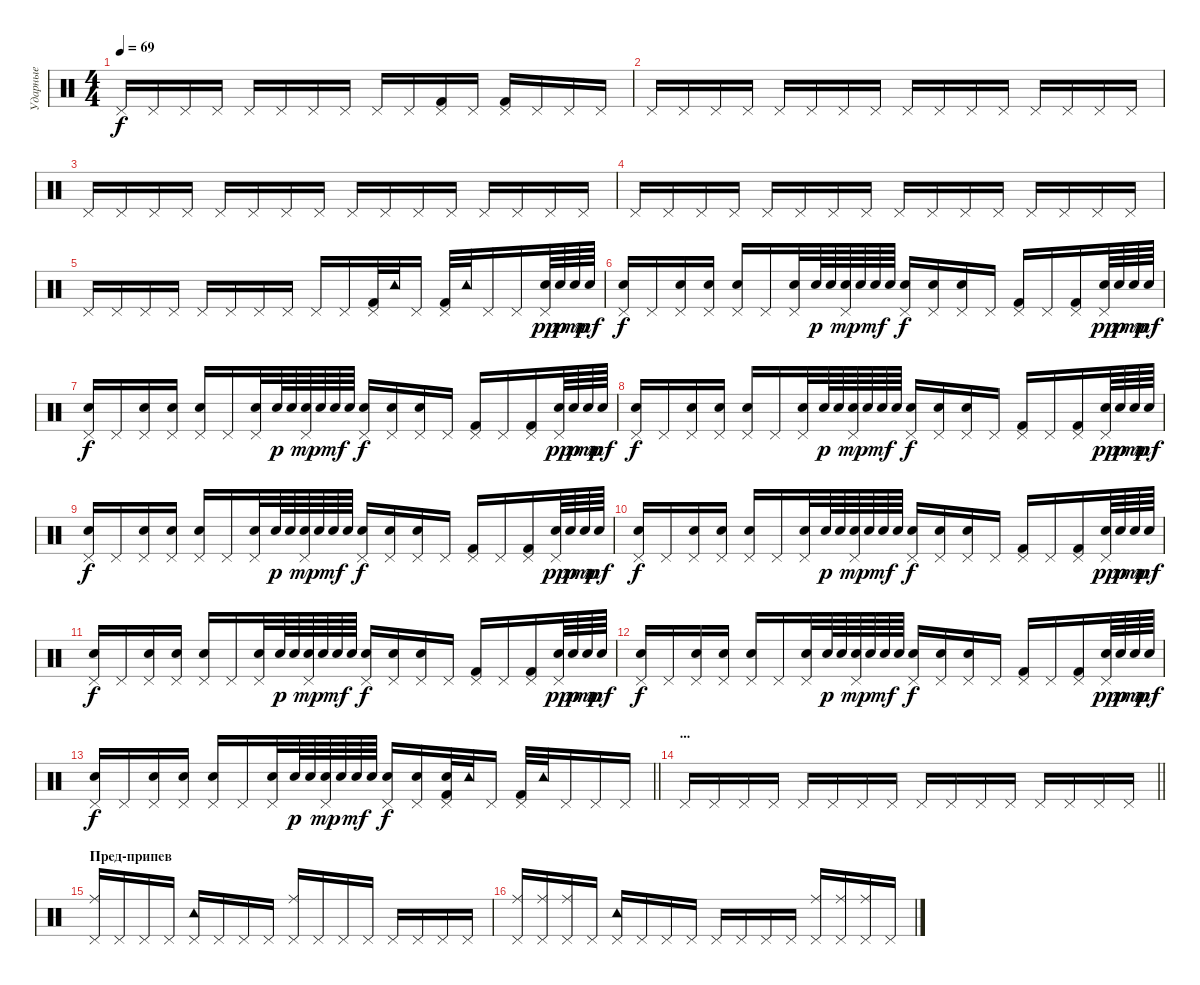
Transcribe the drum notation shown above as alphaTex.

\track ("Ударные" "Ударные") {instrument percussion}
\staff {score}
\articulation defaults
\ts (4 4)
\tempo 69
\clef neutral
\ks c "Pedal Hi-Hat (hit)".16{dy f} "Pedal Hi-Hat (hit)".16 "Pedal Hi-Hat (hit)".16 "Pedal Hi-Hat (hit)".16 "Pedal Hi-Hat (hit)".16 "Pedal Hi-Hat (hit)".16 "Pedal Hi-Hat (hit)".16 "Pedal Hi-Hat (hit)".16 "Pedal Hi-Hat (hit)".16 "Pedal Hi-Hat (hit)".16
("Pedal Hi-Hat (hit)" "Kick (hit) 2").16 "Pedal Hi-Hat (hit)".16 ("Pedal Hi-Hat (hit)" "Kick (hit) 2").16 "Pedal Hi-Hat (hit)".16 "Pedal Hi-Hat (hit)".16 "Pedal Hi-Hat (hit)".16 |
"Pedal Hi-Hat (hit)".16 "Pedal Hi-Hat (hit)".16 "Pedal Hi-Hat (hit)".16 "Pedal Hi-Hat (hit)".16 "Pedal Hi-Hat (hit)".16 "Pedal Hi-Hat (hit)".16 "Pedal Hi-Hat (hit)".16 "Pedal Hi-Hat (hit)".16 "Pedal Hi-Hat (hit)".16 "Pedal Hi-Hat (hit)".16 "Pedal Hi-Hat (hit)".16 "Pedal Hi-Hat (hit)".16 "Pedal Hi-Hat (hit)".16 "Pedal Hi-Hat (hit)".16 "Pedal Hi-Hat (hit)".16 "Pedal Hi-Hat (hit)".16 |
"Pedal Hi-Hat (hit)".16 "Pedal Hi-Hat (hit)".16 "Pedal Hi-Hat (hit)".16 "Pedal Hi-Hat (hit)".16 "Pedal Hi-Hat (hit)".16 "Pedal Hi-Hat (hit)".16 "Pedal Hi-Hat (hit)".16 "Pedal Hi-Hat (hit)".16 "Pedal Hi-Hat (hit)".16 "Pedal Hi-Hat (hit)".16 "Pedal Hi-Hat (hit)".16 "Pedal Hi-Hat (hit)".16 "Pedal Hi-Hat (hit)".16 "Pedal Hi-Hat (hit)".16 "Pedal Hi-Hat (hit)".16 "Pedal Hi-Hat (hit)".16 |
"Pedal Hi-Hat (hit)".16 "Pedal Hi-Hat (hit)".16 "Pedal Hi-Hat (hit)".16 "Pedal Hi-Hat (hit)".16 "Pedal Hi-Hat (hit)".16 "Pedal Hi-Hat (hit)".16 "Pedal Hi-Hat (hit)".16 "Pedal Hi-Hat (hit)".16 "Pedal Hi-Hat (hit)".16 "Pedal Hi-Hat (hit)".16 "Pedal Hi-Hat (hit)".16 "Pedal Hi-Hat (hit)".16 "Pedal Hi-Hat (hit)".16 "Pedal Hi-Hat (hit)".16 "Pedal Hi-Hat (hit)".16 "Pedal Hi-Hat (hit)".16 |
"Pedal Hi-Hat (hit)".16 "Pedal Hi-Hat (hit)".16 "Pedal Hi-Hat (hit)".16 "Pedal Hi-Hat (hit)".16 "Pedal Hi-Hat (hit)".16 "Pedal Hi-Hat (hit)".16 "Pedal Hi-Hat (hit)".16 "Pedal Hi-Hat (hit)".16 "Pedal Hi-Hat (hit)".16 "Pedal Hi-Hat (hit)".16 ("Pedal Hi-Hat (hit)" "Kick (hit) 2").32 "Tambourine (hit)".32 "Pedal Hi-Hat (hit)".16 ("Pedal Hi-Hat (hit)" "Kick (hit) 2").32 "Tambourine (hit)".32 "Pedal Hi-Hat (hit)".16 "Pedal Hi-Hat (hit)".16 ("Pedal Hi-Hat (hit)" "Snare (hit) 2").64{dy pp} "Snare (hit) 2".64{dy p} "Snare (hit) 2".64{dy mp} "Snare (hit) 2".64{dy mf} |
("Pedal Hi-Hat (hit)" "Snare (hit) 2").16{dy f} "Pedal Hi-Hat (hit)".16 ("Pedal Hi-Hat (hit)" "Snare (hit) 2").16 ("Pedal Hi-Hat (hit)" "Snare (hit) 2").16 ("Pedal Hi-Hat (hit)" "Snare (hit) 2").16 "Pedal Hi-Hat (hit)".16 ("Pedal Hi-Hat (hit)" "Snare (hit) 2").32 "Snare (hit) 2".64{dy p} "Snare (hit) 2".64 ("Pedal Hi-Hat (hit)" "Snare (hit) 2").64{dy mp} "Snare (hit) 2".64 "Snare (hit) 2".64{dy mf} "Snare (hit) 2".64 ("Pedal Hi-Hat (hit)" "Snare (hit) 2").16{dy f} ("Pedal Hi-Hat (hit)" "Snare (hit) 2").16 ("Pedal Hi-Hat (hit)" "Snare (hit) 2").16 "Pedal Hi-Hat (hit)".16 ("Pedal Hi-Hat (hit)" "Kick (hit) 2").16 "Pedal Hi-Hat (hit)".16 ("Pedal Hi-Hat (hit)" "Kick (hit) 2").16 ("Pedal Hi-Hat (hit)" "Snare (hit) 2").64{dy pp} "Snare (hit) 2".64{dy p} "Snare (hit) 2".64{dy mp} "Snare (hit) 2".64{dy mf} |
("Pedal Hi-Hat (hit)" "Snare (hit) 2").16{dy f} "Pedal Hi-Hat (hit)".16 ("Pedal Hi-Hat (hit)" "Snare (hit) 2").16 ("Pedal Hi-Hat (hit)" "Snare (hit) 2").16 ("Pedal Hi-Hat (hit)" "Snare (hit) 2").16 "Pedal Hi-Hat (hit)".16 ("Pedal Hi-Hat (hit)" "Snare (hit) 2").32 "Snare (hit) 2".64{dy p} "Snare (hit) 2".64 ("Pedal Hi-Hat (hit)" "Snare (hit) 2").64{dy mp} "Snare (hit) 2".64 "Snare (hit) 2".64{dy mf} "Snare (hit) 2".64 ("Pedal Hi-Hat (hit)" "Snare (hit) 2").16{dy f} ("Pedal Hi-Hat (hit)" "Snare (hit) 2").16 ("Pedal Hi-Hat (hit)" "Snare (hit) 2").16 "Pedal Hi-Hat (hit)".16 ("Pedal Hi-Hat (hit)" "Kick (hit) 2").16 "Pedal Hi-Hat (hit)".16 ("Pedal Hi-Hat (hit)" "Kick (hit) 2").16 ("Pedal Hi-Hat (hit)" "Snare (hit) 2").64{dy pp} "Snare (hit) 2".64{dy p} "Snare (hit) 2".64{dy mp} "Snare (hit) 2".64{dy mf} |
("Pedal Hi-Hat (hit)" "Snare (hit) 2").16{dy f} "Pedal Hi-Hat (hit)".16 ("Pedal Hi-Hat (hit)" "Snare (hit) 2").16 ("Pedal Hi-Hat (hit)" "Snare (hit) 2").16 ("Pedal Hi-Hat (hit)" "Snare (hit) 2").16 "Pedal Hi-Hat (hit)".16 ("Pedal Hi-Hat (hit)" "Snare (hit) 2").32 "Snare (hit) 2".64{dy p} "Snare (hit) 2".64 ("Pedal Hi-Hat (hit)" "Snare (hit) 2").64{dy mp} "Snare (hit) 2".64 "Snare (hit) 2".64{dy mf} "Snare (hit) 2".64 ("Pedal Hi-Hat (hit)" "Snare (hit) 2").16{dy f} ("Pedal Hi-Hat (hit)" "Snare (hit) 2").16 ("Pedal Hi-Hat (hit)" "Snare (hit) 2").16 "Pedal Hi-Hat (hit)".16 ("Pedal Hi-Hat (hit)" "Kick (hit) 2").16 "Pedal Hi-Hat (hit)".16 ("Pedal Hi-Hat (hit)" "Kick (hit) 2").16 ("Pedal Hi-Hat (hit)" "Snare (hit) 2").64{dy pp} "Snare (hit) 2".64{dy p} "Snare (hit) 2".64{dy mp} "Snare (hit) 2".64{dy mf} |
("Pedal Hi-Hat (hit)" "Snare (hit) 2").16{dy f} "Pedal Hi-Hat (hit)".16 ("Pedal Hi-Hat (hit)" "Snare (hit) 2").16 ("Pedal Hi-Hat (hit)" "Snare (hit) 2").16 ("Pedal Hi-Hat (hit)" "Snare (hit) 2").16 "Pedal Hi-Hat (hit)".16 ("Pedal Hi-Hat (hit)" "Snare (hit) 2").32 "Snare (hit) 2".64{dy p} "Snare (hit) 2".64 ("Pedal Hi-Hat (hit)" "Snare (hit) 2").64{dy mp} "Snare (hit) 2".64 "Snare (hit) 2".64{dy mf} "Snare (hit) 2".64 ("Pedal Hi-Hat (hit)" "Snare (hit) 2").16{dy f} ("Pedal Hi-Hat (hit)" "Snare (hit) 2").16 ("Pedal Hi-Hat (hit)" "Snare (hit) 2").16 "Pedal Hi-Hat (hit)".16 ("Pedal Hi-Hat (hit)" "Kick (hit) 2").16 "Pedal Hi-Hat (hit)".16 ("Pedal Hi-Hat (hit)" "Kick (hit) 2").16 ("Pedal Hi-Hat (hit)" "Snare (hit) 2").64{dy pp} "Snare (hit) 2".64{dy p} "Snare (hit) 2".64{dy mp} "Snare (hit) 2".64{dy mf} |
("Pedal Hi-Hat (hit)" "Snare (hit) 2").16{dy f} "Pedal Hi-Hat (hit)".16 ("Pedal Hi-Hat (hit)" "Snare (hit) 2").16 ("Pedal Hi-Hat (hit)" "Snare (hit) 2").16 ("Pedal Hi-Hat (hit)" "Snare (hit) 2").16 "Pedal Hi-Hat (hit)".16 ("Pedal Hi-Hat (hit)" "Snare (hit) 2").32 "Snare (hit) 2".64{dy p} "Snare (hit) 2".64 ("Pedal Hi-Hat (hit)" "Snare (hit) 2").64{dy mp} "Snare (hit) 2".64 "Snare (hit) 2".64{dy mf} "Snare (hit) 2".64 ("Pedal Hi-Hat (hit)" "Snare (hit) 2").16{dy f} ("Pedal Hi-Hat (hit)" "Snare (hit) 2").16 ("Pedal Hi-Hat (hit)" "Snare (hit) 2").16 "Pedal Hi-Hat (hit)".16 ("Pedal Hi-Hat (hit)" "Kick (hit) 2").16 "Pedal Hi-Hat (hit)".16 ("Pedal Hi-Hat (hit)" "Kick (hit) 2").16 ("Pedal Hi-Hat (hit)" "Snare (hit) 2").64{dy pp} "Snare (hit) 2".64{dy p} "Snare (hit) 2".64{dy mp} "Snare (hit) 2".64{dy mf} |
("Pedal Hi-Hat (hit)" "Snare (hit) 2").16{dy f} "Pedal Hi-Hat (hit)".16 ("Pedal Hi-Hat (hit)" "Snare (hit) 2").16 ("Pedal Hi-Hat (hit)" "Snare (hit) 2").16 ("Pedal Hi-Hat (hit)" "Snare (hit) 2").16 "Pedal Hi-Hat (hit)".16 ("Pedal Hi-Hat (hit)" "Snare (hit) 2").32 "Snare (hit) 2".64{dy p} "Snare (hit) 2".64 ("Pedal Hi-Hat (hit)" "Snare (hit) 2").64{dy mp} "Snare (hit) 2".64 "Snare (hit) 2".64{dy mf} "Snare (hit) 2".64 ("Pedal Hi-Hat (hit)" "Snare (hit) 2").16{dy f} ("Pedal Hi-Hat (hit)" "Snare (hit) 2").16 ("Pedal Hi-Hat (hit)" "Snare (hit) 2").16 "Pedal Hi-Hat (hit)".16 ("Pedal Hi-Hat (hit)" "Kick (hit) 2").16 "Pedal Hi-Hat (hit)".16 ("Pedal Hi-Hat (hit)" "Kick (hit) 2").16 ("Pedal Hi-Hat (hit)" "Snare (hit) 2").64{dy pp} "Snare (hit) 2".64{dy p} "Snare (hit) 2".64{dy mp} "Snare (hit) 2".64{dy mf} |
("Pedal Hi-Hat (hit)" "Snare (hit) 2").16{dy f} "Pedal Hi-Hat (hit)".16 ("Pedal Hi-Hat (hit)" "Snare (hit) 2").16 ("Pedal Hi-Hat (hit)" "Snare (hit) 2").16 ("Pedal Hi-Hat (hit)" "Snare (hit) 2").16 "Pedal Hi-Hat (hit)".16 ("Pedal Hi-Hat (hit)" "Snare (hit) 2").32 "Snare (hit) 2".64{dy p} "Snare (hit) 2".64 ("Pedal Hi-Hat (hit)" "Snare (hit) 2").64{dy mp} "Snare (hit) 2".64 "Snare (hit) 2".64{dy mf} "Snare (hit) 2".64 ("Pedal Hi-Hat (hit)" "Snare (hit) 2").16{dy f} ("Pedal Hi-Hat (hit)" "Snare (hit) 2").16 ("Pedal Hi-Hat (hit)" "Snare (hit) 2").16 "Pedal Hi-Hat (hit)".16 ("Pedal Hi-Hat (hit)" "Kick (hit) 2").16 "Pedal Hi-Hat (hit)".16 ("Pedal Hi-Hat (hit)" "Kick (hit) 2").16 ("Pedal Hi-Hat (hit)" "Snare (hit) 2").64{dy pp} "Snare (hit) 2".64{dy p} "Snare (hit) 2".64{dy mp} "Snare (hit) 2".64{dy mf} |
\barLineRight lightlight
("Pedal Hi-Hat (hit)" "Snare (hit) 2").16{dy f} "Pedal Hi-Hat (hit)".16 ("Pedal Hi-Hat (hit)" "Snare (hit) 2").16 ("Pedal Hi-Hat (hit)" "Snare (hit) 2").16 ("Pedal Hi-Hat (hit)" "Snare (hit) 2").16 "Pedal Hi-Hat (hit)".16 ("Pedal Hi-Hat (hit)" "Snare (hit) 2").32 "Snare (hit) 2".64{dy p} "Snare (hit) 2".64 ("Pedal Hi-Hat (hit)" "Snare (hit) 2").64{dy mp} "Snare (hit) 2".64 "Snare (hit) 2".64{dy mf} "Snare (hit) 2".64 ("Pedal Hi-Hat (hit)" "Snare (hit) 2").16{dy f} ("Pedal Hi-Hat (hit)" "Snare (hit) 2").16 ("Pedal Hi-Hat (hit)" "Kick (hit) 2" "Snare (hit) 2").32 "Tambourine (hit)".32 "Pedal Hi-Hat (hit)".16 ("Pedal Hi-Hat (hit)" "Kick (hit) 2").32 "Tambourine (hit)".32 "Pedal Hi-Hat (hit)".16 "Pedal Hi-Hat (hit)".16 "Pedal Hi-Hat (hit)".16 |
\section ("" "...")
\barLineRight lightlight "Pedal Hi-Hat (hit)".16 "Pedal Hi-Hat (hit)".16 "Pedal Hi-Hat (hit)".16 "Pedal Hi-Hat (hit)".16 "Pedal Hi-Hat (hit)".16 "Pedal Hi-Hat (hit)".16 "Pedal Hi-Hat (hit)".16 "Pedal Hi-Hat (hit)".16 "Pedal Hi-Hat (hit)".16 "Pedal Hi-Hat (hit)".16 "Pedal Hi-Hat (hit)".16 "Pedal Hi-Hat (hit)".16 "Pedal Hi-Hat (hit)".16 "Pedal Hi-Hat (hit)".16 "Pedal Hi-Hat (hit)".16 "Pedal Hi-Hat (hit)".16
|
\section ("" "Пред-припев")
("Pedal Hi-Hat (hit)" "Ride (middle)").16 "Pedal Hi-Hat (hit)".16 "Pedal Hi-Hat (hit)".16 "Pedal Hi-Hat (hit)".16 ("Pedal Hi-Hat (hit)" "Tambourine (hit)").16 "Pedal Hi-Hat (hit)".16 "Pedal Hi-Hat (hit)".16 "Pedal Hi-Hat (hit)".16 ("Pedal Hi-Hat (hit)" "Ride (middle)").16 "Pedal Hi-Hat (hit)".16 "Pedal Hi-Hat (hit)".16 "Pedal Hi-Hat (hit)".16 "Pedal Hi-Hat (hit)".16 "Pedal Hi-Hat (hit)".16 "Pedal Hi-Hat (hit)".16 "Pedal Hi-Hat (hit)".16 |
("Pedal Hi-Hat (hit)" "Ride (middle)").16 ("Pedal Hi-Hat (hit)" "Ride (middle)").16 ("Pedal Hi-Hat (hit)" "Ride (middle)").16 "Pedal Hi-Hat (hit)".16 ("Pedal Hi-Hat (hit)" "Tambourine (hit)").16 "Pedal Hi-Hat (hit)".16 "Pedal Hi-Hat (hit)".16 "Pedal Hi-Hat (hit)".16 "Pedal Hi-Hat (hit)".16 "Pedal Hi-Hat (hit)".16 "Pedal Hi-Hat (hit)".16 "Pedal Hi-Hat (hit)".16 ("Pedal Hi-Hat (hit)" "Ride (middle)").16 ("Pedal Hi-Hat (hit)" "Ride (middle)").16 ("Pedal Hi-Hat (hit)" "Ride (middle)").16 "Pedal Hi-Hat (hit)".16
